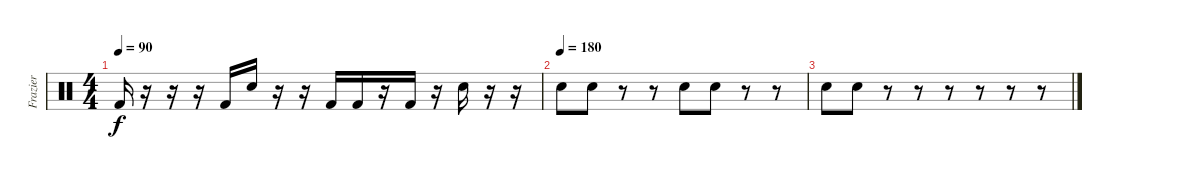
\track ("Frazier" "Frazier") {instrument percussion}
\staff {score}
\articulation defaults
\ts (4 4)
\tempo 90
\clef neutral
\ks c "Kick (hit) 2".16{dy f}
r.16 r.16 r.16 "Kick (hit) 2".16 "Electric Snare (hit)".16 r.16 r.16 "Kick (hit) 2".16 "Kick (hit) 2".16 r.16 "Kick (hit) 2".16 r.16 "Electric Snare (hit)".16 r.16 r.16 |
\tempo (180)
"Electric Snare (hit)".8 "Electric Snare (hit)".8 r.8 r.8 "Electric Snare (hit)".8 "Electric Snare (hit)".8 r.8 r.8 |
"Electric Snare (hit)".8 "Electric Snare (hit)".8 r.8 r.8 r.8 r.8 r.8 r.8
